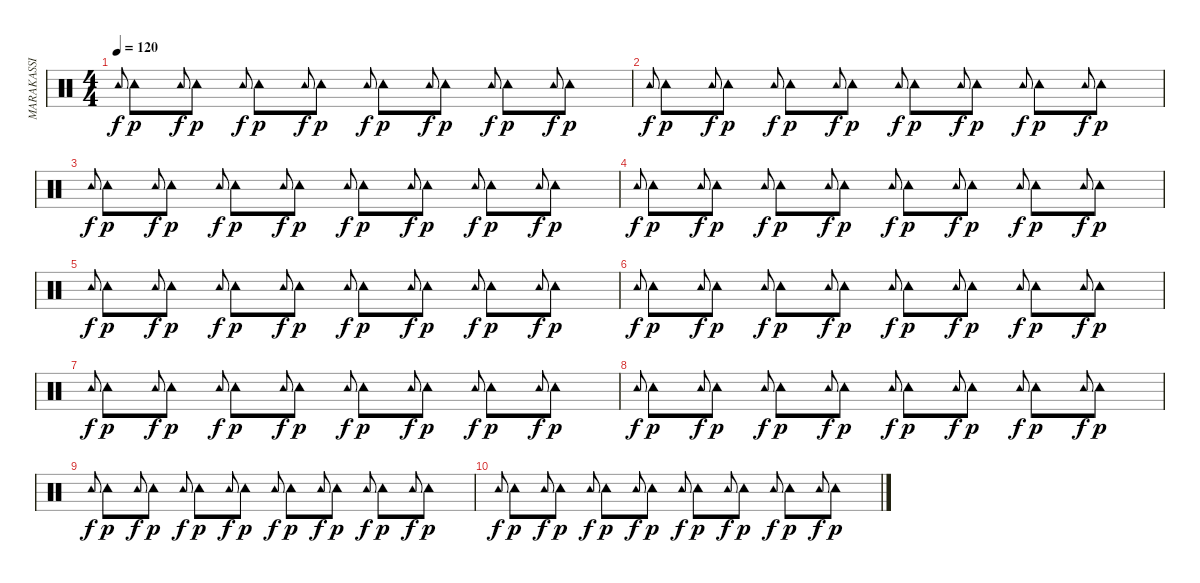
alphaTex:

\track ("MARAKASSI" "MARAKASSI") {instrument percussion}
\staff {score}
\articulation defaults
\ts (4 4)
\tempo 120
\clef neutral
\ks c "Tambourine (hit)".8{gr onbeat dy f} "Tambourine (hit)".8{dy p} "Tambourine (hit)".8{gr onbeat dy f} "Tambourine (hit)".8{dy p} "Tambourine (hit)".8{gr onbeat dy f} "Tambourine (hit)".8{dy p} "Tambourine (hit)".8{gr onbeat dy f} "Tambourine (hit)".8{dy p} "Tambourine (hit)".8{gr onbeat dy f} "Tambourine (hit)".8{dy p} "Tambourine (hit)".8{gr onbeat dy f} "Tambourine (hit)".8{dy p} "Tambourine (hit)".8{gr onbeat dy f} "Tambourine (hit)".8{dy p} "Tambourine (hit)".8{gr onbeat dy f} "Tambourine (hit)".8{dy p}
|
"Tambourine (hit)".8{gr onbeat dy f} "Tambourine (hit)".8{dy p} "Tambourine (hit)".8{gr onbeat dy f} "Tambourine (hit)".8{dy p} "Tambourine (hit)".8{gr onbeat dy f} "Tambourine (hit)".8{dy p} "Tambourine (hit)".8{gr onbeat dy f} "Tambourine (hit)".8{dy p} "Tambourine (hit)".8{gr onbeat dy f} "Tambourine (hit)".8{dy p} "Tambourine (hit)".8{gr onbeat dy f} "Tambourine (hit)".8{dy p} "Tambourine (hit)".8{gr onbeat dy f} "Tambourine (hit)".8{dy p} "Tambourine (hit)".8{gr onbeat dy f} "Tambourine (hit)".8{dy p} |
"Tambourine (hit)".8{gr onbeat dy f} "Tambourine (hit)".8{dy p} "Tambourine (hit)".8{gr onbeat dy f} "Tambourine (hit)".8{dy p} "Tambourine (hit)".8{gr onbeat dy f} "Tambourine (hit)".8{dy p} "Tambourine (hit)".8{gr onbeat dy f} "Tambourine (hit)".8{dy p} "Tambourine (hit)".8{gr onbeat dy f} "Tambourine (hit)".8{dy p} "Tambourine (hit)".8{gr onbeat dy f} "Tambourine (hit)".8{dy p} "Tambourine (hit)".8{gr onbeat dy f} "Tambourine (hit)".8{dy p} "Tambourine (hit)".8{gr onbeat dy f} "Tambourine (hit)".8{dy p} |
"Tambourine (hit)".8{gr onbeat dy f} "Tambourine (hit)".8{dy p} "Tambourine (hit)".8{gr onbeat dy f} "Tambourine (hit)".8{dy p} "Tambourine (hit)".8{gr onbeat dy f} "Tambourine (hit)".8{dy p} "Tambourine (hit)".8{gr onbeat dy f} "Tambourine (hit)".8{dy p} "Tambourine (hit)".8{gr onbeat dy f} "Tambourine (hit)".8{dy p} "Tambourine (hit)".8{gr onbeat dy f} "Tambourine (hit)".8{dy p} "Tambourine (hit)".8{gr onbeat dy f} "Tambourine (hit)".8{dy p} "Tambourine (hit)".8{gr onbeat dy f} "Tambourine (hit)".8{dy p} |
"Tambourine (hit)".8{gr onbeat dy f} "Tambourine (hit)".8{dy p} "Tambourine (hit)".8{gr onbeat dy f} "Tambourine (hit)".8{dy p} "Tambourine (hit)".8{gr onbeat dy f} "Tambourine (hit)".8{dy p} "Tambourine (hit)".8{gr onbeat dy f} "Tambourine (hit)".8{dy p} "Tambourine (hit)".8{gr onbeat dy f} "Tambourine (hit)".8{dy p} "Tambourine (hit)".8{gr onbeat dy f} "Tambourine (hit)".8{dy p} "Tambourine (hit)".8{gr onbeat dy f} "Tambourine (hit)".8{dy p} "Tambourine (hit)".8{gr onbeat dy f} "Tambourine (hit)".8{dy p} |
"Tambourine (hit)".8{gr onbeat dy f} "Tambourine (hit)".8{dy p} "Tambourine (hit)".8{gr onbeat dy f} "Tambourine (hit)".8{dy p} "Tambourine (hit)".8{gr onbeat dy f} "Tambourine (hit)".8{dy p} "Tambourine (hit)".8{gr onbeat dy f} "Tambourine (hit)".8{dy p} "Tambourine (hit)".8{gr onbeat dy f} "Tambourine (hit)".8{dy p} "Tambourine (hit)".8{gr onbeat dy f} "Tambourine (hit)".8{dy p} "Tambourine (hit)".8{gr onbeat dy f} "Tambourine (hit)".8{dy p} "Tambourine (hit)".8{gr onbeat dy f} "Tambourine (hit)".8{dy p} |
"Tambourine (hit)".8{gr onbeat dy f} "Tambourine (hit)".8{dy p} "Tambourine (hit)".8{gr onbeat dy f} "Tambourine (hit)".8{dy p} "Tambourine (hit)".8{gr onbeat dy f} "Tambourine (hit)".8{dy p} "Tambourine (hit)".8{gr onbeat dy f} "Tambourine (hit)".8{dy p} "Tambourine (hit)".8{gr onbeat dy f} "Tambourine (hit)".8{dy p} "Tambourine (hit)".8{gr onbeat dy f} "Tambourine (hit)".8{dy p} "Tambourine (hit)".8{gr onbeat dy f} "Tambourine (hit)".8{dy p} "Tambourine (hit)".8{gr onbeat dy f} "Tambourine (hit)".8{dy p} |
"Tambourine (hit)".8{gr onbeat dy f} "Tambourine (hit)".8{dy p} "Tambourine (hit)".8{gr onbeat dy f} "Tambourine (hit)".8{dy p} "Tambourine (hit)".8{gr onbeat dy f} "Tambourine (hit)".8{dy p} "Tambourine (hit)".8{gr onbeat dy f} "Tambourine (hit)".8{dy p} "Tambourine (hit)".8{gr onbeat dy f} "Tambourine (hit)".8{dy p} "Tambourine (hit)".8{gr onbeat dy f} "Tambourine (hit)".8{dy p} "Tambourine (hit)".8{gr onbeat dy f} "Tambourine (hit)".8{dy p} "Tambourine (hit)".8{gr onbeat dy f} "Tambourine (hit)".8{dy p} |
"Tambourine (hit)".8{gr onbeat dy f} "Tambourine (hit)".8{dy p} "Tambourine (hit)".8{gr onbeat dy f} "Tambourine (hit)".8{dy p} "Tambourine (hit)".8{gr onbeat dy f} "Tambourine (hit)".8{dy p} "Tambourine (hit)".8{gr onbeat dy f} "Tambourine (hit)".8{dy p} "Tambourine (hit)".8{gr onbeat dy f} "Tambourine (hit)".8{dy p} "Tambourine (hit)".8{gr onbeat dy f} "Tambourine (hit)".8{dy p} "Tambourine (hit)".8{gr onbeat dy f} "Tambourine (hit)".8{dy p} "Tambourine (hit)".8{gr onbeat dy f} "Tambourine (hit)".8{dy p} |
"Tambourine (hit)".8{gr onbeat dy f} "Tambourine (hit)".8{dy p} "Tambourine (hit)".8{gr onbeat dy f} "Tambourine (hit)".8{dy p} "Tambourine (hit)".8{gr onbeat dy f} "Tambourine (hit)".8{dy p} "Tambourine (hit)".8{gr onbeat dy f} "Tambourine (hit)".8{dy p} "Tambourine (hit)".8{gr onbeat dy f} "Tambourine (hit)".8{dy p} "Tambourine (hit)".8{gr onbeat dy f} "Tambourine (hit)".8{dy p} "Tambourine (hit)".8{gr onbeat dy f} "Tambourine (hit)".8{dy p} "Tambourine (hit)".8{gr onbeat dy f} "Tambourine (hit)".8{dy p}
